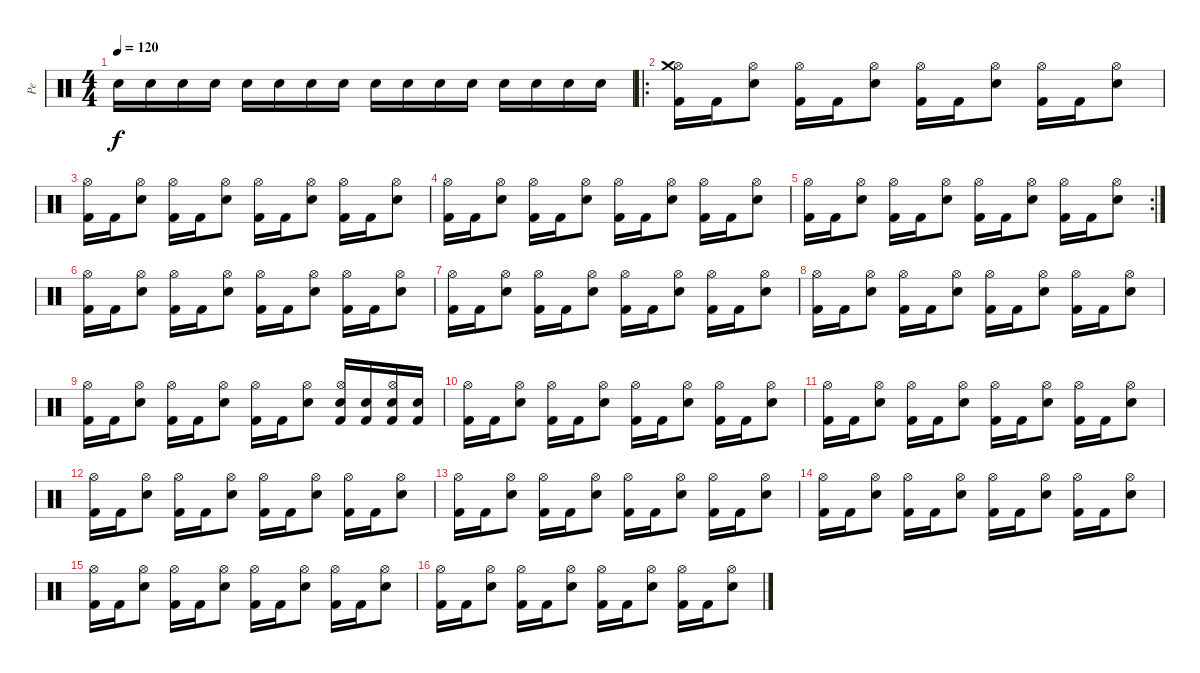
\track ("Pe" "Pe") {instrument percussion}
\staff {score}
\articulation defaults
\ts (4 4)
\tempo 120
\clef neutral
\ks c "Electric Snare (hit)".16{dy f} "Electric Snare (hit)".16 "Electric Snare (hit)".16 "Electric Snare (hit)".16 "Electric Snare (hit)".16 "Electric Snare (hit)".16 "Electric Snare (hit)".16 "Electric Snare (hit)".16 "Electric Snare (hit)".16 "Electric Snare (hit)".16 "Electric Snare (hit)".16 "Electric Snare (hit)".16 "Electric Snare (hit)".16 "Electric Snare (hit)".16 "Electric Snare (hit)".16 "Electric Snare (hit)".16
|
\ro
("Hi-Hat (open)" "Crash medium (hit)" "Kick (hit) 2").16 "Kick (hit) 2".16 ("Hi-Hat (open)" "Electric Snare (hit)").8 ("Hi-Hat (open)" "Kick (hit) 2").16 "Kick (hit) 2".16 ("Hi-Hat (open)" "Electric Snare (hit)").8 ("Hi-Hat (open)" "Kick (hit) 2").16 "Kick (hit) 2".16 ("Hi-Hat (open)" "Electric Snare (hit)").8 ("Hi-Hat (open)" "Kick (hit) 2").16 "Kick (hit) 2".16 ("Hi-Hat (open)" "Electric Snare (hit)").8 |
("Hi-Hat (open)" "Kick (hit) 2").16 "Kick (hit) 2".16 ("Hi-Hat (open)" "Electric Snare (hit)").8 ("Hi-Hat (open)" "Kick (hit) 2").16 "Kick (hit) 2".16 ("Hi-Hat (open)" "Electric Snare (hit)").8 ("Hi-Hat (open)" "Kick (hit) 2").16 "Kick (hit) 2".16 ("Hi-Hat (open)" "Electric Snare (hit)").8 ("Hi-Hat (open)" "Kick (hit) 2").16 "Kick (hit) 2".16 ("Hi-Hat (open)" "Electric Snare (hit)").8 |
("Hi-Hat (open)" "Kick (hit) 2").16 "Kick (hit) 2".16 ("Hi-Hat (open)" "Electric Snare (hit)").8 ("Hi-Hat (open)" "Kick (hit) 2").16 "Kick (hit) 2".16 ("Hi-Hat (open)" "Electric Snare (hit)").8 ("Hi-Hat (open)" "Kick (hit) 2").16 "Kick (hit) 2".16 ("Hi-Hat (open)" "Electric Snare (hit)").8 ("Hi-Hat (open)" "Kick (hit) 2").16 "Kick (hit) 2".16 ("Hi-Hat (open)" "Electric Snare (hit)").8 |
\rc 2
("Hi-Hat (open)" "Kick (hit) 2").16 "Kick (hit) 2".16 ("Hi-Hat (open)" "Electric Snare (hit)").8 ("Hi-Hat (open)" "Kick (hit) 2").16 "Kick (hit) 2".16 ("Hi-Hat (open)" "Electric Snare (hit)").8 ("Hi-Hat (open)" "Kick (hit) 2").16 "Kick (hit) 2".16 ("Hi-Hat (open)" "Electric Snare (hit)").8 ("Hi-Hat (open)" "Kick (hit) 2").16 "Kick (hit) 2".16 ("Hi-Hat (open)" "Electric Snare (hit)").8 |
("Hi-Hat (open)" "Kick (hit) 2").16 "Kick (hit) 2".16 ("Hi-Hat (open)" "Electric Snare (hit)").8 ("Hi-Hat (open)" "Kick (hit) 2").16 "Kick (hit) 2".16 ("Hi-Hat (open)" "Electric Snare (hit)").8 ("Hi-Hat (open)" "Kick (hit) 2").16 "Kick (hit) 2".16 ("Hi-Hat (open)" "Electric Snare (hit)").8 ("Hi-Hat (open)" "Kick (hit) 2").16 "Kick (hit) 2".16 ("Hi-Hat (open)" "Electric Snare (hit)").8 |
("Hi-Hat (open)" "Kick (hit) 2").16 "Kick (hit) 2".16 ("Hi-Hat (open)" "Electric Snare (hit)").8 ("Hi-Hat (open)" "Kick (hit) 2").16 "Kick (hit) 2".16 ("Hi-Hat (open)" "Electric Snare (hit)").8 ("Hi-Hat (open)" "Kick (hit) 2").16 "Kick (hit) 2".16 ("Hi-Hat (open)" "Electric Snare (hit)").8 ("Hi-Hat (open)" "Kick (hit) 2").16 "Kick (hit) 2".16 ("Hi-Hat (open)" "Electric Snare (hit)").8 |
("Hi-Hat (open)" "Kick (hit) 2").16 "Kick (hit) 2".16 ("Hi-Hat (open)" "Electric Snare (hit)").8 ("Hi-Hat (open)" "Kick (hit) 2").16 "Kick (hit) 2".16 ("Hi-Hat (open)" "Electric Snare (hit)").8 ("Hi-Hat (open)" "Kick (hit) 2").16 "Kick (hit) 2".16 ("Hi-Hat (open)" "Electric Snare (hit)").8 ("Hi-Hat (open)" "Kick (hit) 2").16 "Kick (hit) 2".16 ("Hi-Hat (open)" "Electric Snare (hit)").8 |
("Hi-Hat (open)" "Kick (hit) 2").16 "Kick (hit) 2".16 ("Hi-Hat (open)" "Electric Snare (hit)").8 ("Hi-Hat (open)" "Kick (hit) 2").16 "Kick (hit) 2".16 ("Hi-Hat (open)" "Electric Snare (hit)").8 ("Hi-Hat (open)" "Kick (hit) 2").16 "Kick (hit) 2".16 ("Hi-Hat (open)" "Electric Snare (hit)").8 ("Hi-Hat (open)" "Electric Snare (hit)" "Kick (hit) 2").16 ("Electric Snare (hit)" "Kick (hit) 2").16 ("Hi-Hat (open)" "Electric Snare (hit)" "Kick (hit) 2").16 ("Electric Snare (hit)" "Kick (hit) 2").16 |
("Hi-Hat (open)" "Kick (hit) 2").16 "Kick (hit) 2".16 ("Hi-Hat (open)" "Electric Snare (hit)").8 ("Hi-Hat (open)" "Kick (hit) 2").16 "Kick (hit) 2".16 ("Hi-Hat (open)" "Electric Snare (hit)").8 ("Hi-Hat (open)" "Kick (hit) 2").16 "Kick (hit) 2".16 ("Hi-Hat (open)" "Electric Snare (hit)").8 ("Hi-Hat (open)" "Kick (hit) 2").16 "Kick (hit) 2".16 ("Hi-Hat (open)" "Electric Snare (hit)").8 |
("Hi-Hat (open)" "Kick (hit) 2").16 "Kick (hit) 2".16 ("Hi-Hat (open)" "Electric Snare (hit)").8 ("Hi-Hat (open)" "Kick (hit) 2").16 "Kick (hit) 2".16 ("Hi-Hat (open)" "Electric Snare (hit)").8 ("Hi-Hat (open)" "Kick (hit) 2").16 "Kick (hit) 2".16 ("Hi-Hat (open)" "Electric Snare (hit)").8 ("Hi-Hat (open)" "Kick (hit) 2").16 "Kick (hit) 2".16 ("Hi-Hat (open)" "Electric Snare (hit)").8 |
("Hi-Hat (open)" "Kick (hit) 2").16 "Kick (hit) 2".16 ("Hi-Hat (open)" "Electric Snare (hit)").8 ("Hi-Hat (open)" "Kick (hit) 2").16 "Kick (hit) 2".16 ("Hi-Hat (open)" "Electric Snare (hit)").8 ("Hi-Hat (open)" "Kick (hit) 2").16 "Kick (hit) 2".16 ("Hi-Hat (open)" "Electric Snare (hit)").8 ("Hi-Hat (open)" "Kick (hit) 2").16 "Kick (hit) 2".16 ("Hi-Hat (open)" "Electric Snare (hit)").8 |
("Hi-Hat (open)" "Kick (hit) 2").16 "Kick (hit) 2".16 ("Hi-Hat (open)" "Electric Snare (hit)").8 ("Hi-Hat (open)" "Kick (hit) 2").16 "Kick (hit) 2".16 ("Hi-Hat (open)" "Electric Snare (hit)").8 ("Hi-Hat (open)" "Kick (hit) 2").16 "Kick (hit) 2".16 ("Hi-Hat (open)" "Electric Snare (hit)").8 ("Hi-Hat (open)" "Kick (hit) 2").16 "Kick (hit) 2".16 ("Hi-Hat (open)" "Electric Snare (hit)").8 |
("Hi-Hat (open)" "Kick (hit) 2").16 "Kick (hit) 2".16 ("Hi-Hat (open)" "Electric Snare (hit)").8 ("Hi-Hat (open)" "Kick (hit) 2").16 "Kick (hit) 2".16 ("Hi-Hat (open)" "Electric Snare (hit)").8 ("Hi-Hat (open)" "Kick (hit) 2").16 "Kick (hit) 2".16 ("Hi-Hat (open)" "Electric Snare (hit)").8 ("Hi-Hat (open)" "Kick (hit) 2").16 "Kick (hit) 2".16 ("Hi-Hat (open)" "Electric Snare (hit)").8 |
("Hi-Hat (open)" "Kick (hit) 2").16 "Kick (hit) 2".16 ("Hi-Hat (open)" "Electric Snare (hit)").8 ("Hi-Hat (open)" "Kick (hit) 2").16 "Kick (hit) 2".16 ("Hi-Hat (open)" "Electric Snare (hit)").8 ("Hi-Hat (open)" "Kick (hit) 2").16 "Kick (hit) 2".16 ("Hi-Hat (open)" "Electric Snare (hit)").8 ("Hi-Hat (open)" "Kick (hit) 2").16 "Kick (hit) 2".16 ("Hi-Hat (open)" "Electric Snare (hit)").8 |
("Hi-Hat (open)" "Kick (hit) 2").16 "Kick (hit) 2".16 ("Hi-Hat (open)" "Electric Snare (hit)").8 ("Hi-Hat (open)" "Kick (hit) 2").16 "Kick (hit) 2".16 ("Hi-Hat (open)" "Electric Snare (hit)").8 ("Hi-Hat (open)" "Kick (hit) 2").16 "Kick (hit) 2".16 ("Hi-Hat (open)" "Electric Snare (hit)").8 ("Hi-Hat (open)" "Kick (hit) 2").16 "Kick (hit) 2".16 ("Hi-Hat (open)" "Electric Snare (hit)").8
